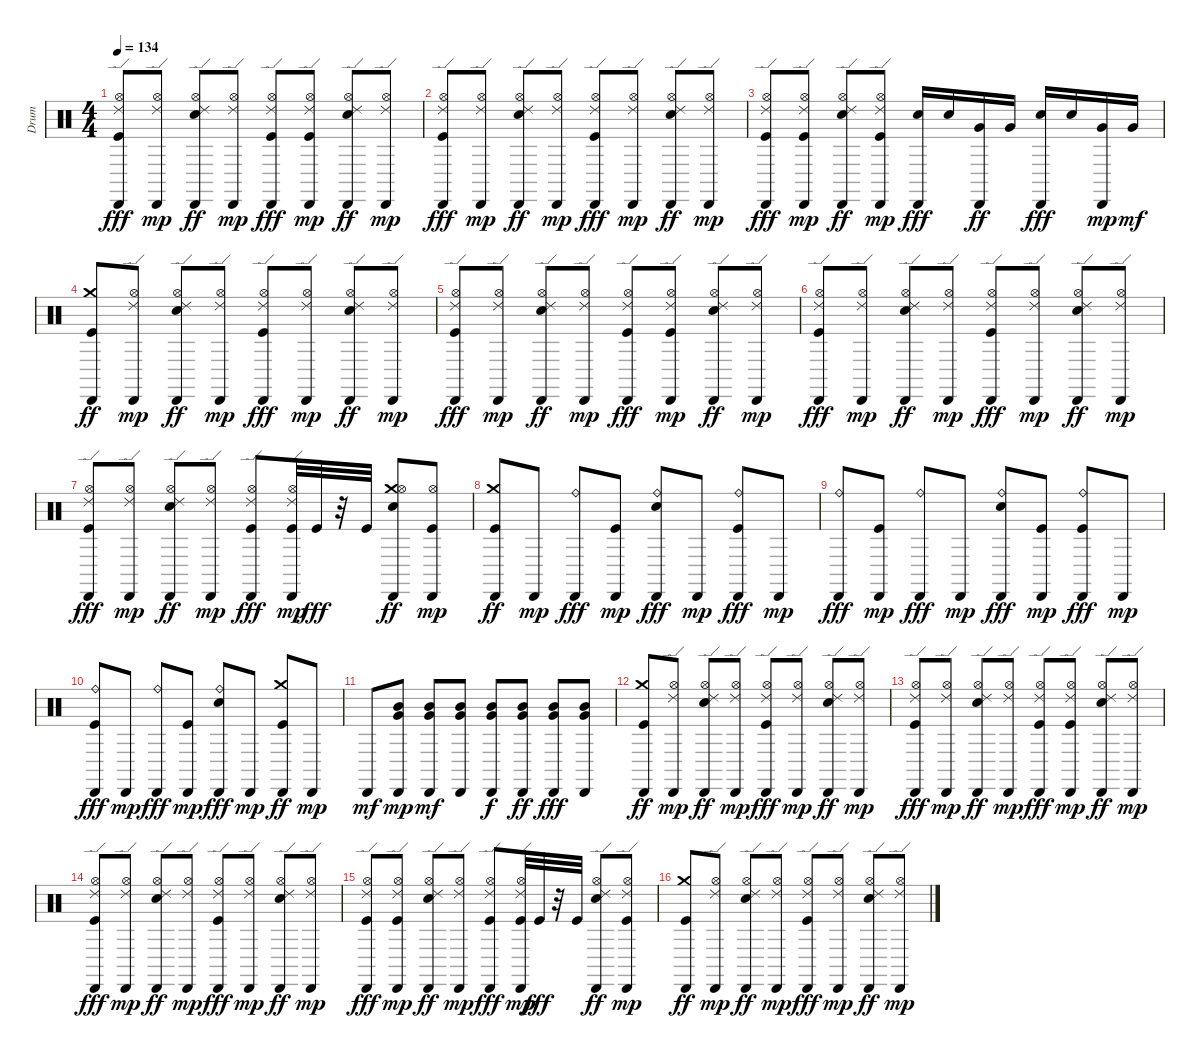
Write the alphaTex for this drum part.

\track ("Drum" "Drum") {instrument percussion}
\staff {score}
\articulation defaults
\ts (4 4)
\tempo 134
\clef neutral
\ks c
("Cabasa (hit)" "Ride (edge) 2" "Kick (hit)" "Hi-Hat (open)").8{dy fff} ("Cabasa (hit)" "Ride (edge) 2" "Hi-Hat (open)").8{dy mp} ("Cabasa (hit)" "Electric Snare (hit)" "Ride (edge) 2" "Hi-Hat (open)").8{dy ff} ("Cabasa (hit)" "Ride (edge) 2" "Hi-Hat (open)").8{dy mp} ("Cabasa (hit)" "Ride (edge) 2" "Kick (hit)" "Hi-Hat (open)").8{dy fff} ("Cabasa (hit)" "Kick (hit)" "Ride (edge) 2" "Hi-Hat (open)").8{dy mp} ("Cabasa (hit)" "Electric Snare (hit)" "Ride (edge) 2" "Hi-Hat (open)").8{dy ff} ("Cabasa (hit)" "Ride (edge) 2" "Hi-Hat (open)").8{dy mp} |
("Ride (edge) 2" "Kick (hit)" "Hi-Hat (open)" "Cabasa (hit)").8{dy fff} ("Cabasa (hit)" "Ride (edge) 2" "Hi-Hat (open)").8{dy mp} ("Electric Snare (hit)" "Cabasa (hit)" "Ride (edge) 2" "Hi-Hat (open)").8{dy ff} ("Cabasa (hit)" "Ride (edge) 2" "Hi-Hat (open)").8{dy mp} ("Cabasa (hit)" "Ride (edge) 2" "Kick (hit)" "Hi-Hat (open)").8{dy fff} ("Cabasa (hit)" "Ride (edge) 2" "Hi-Hat (open)").8{dy mp} ("Cabasa (hit)" "Electric Snare (hit)" "Ride (edge) 2" "Hi-Hat (open)").8{dy ff} ("Cabasa (hit)" "Ride (edge) 2" "Hi-Hat (open)").8{dy mp} |
("Ride (edge) 2" "Kick (hit)" "Hi-Hat (open)" "Cabasa (hit)").8{dy fff} ("Cabasa (hit)" "Kick (hit)" "Ride (edge) 2" "Hi-Hat (open)").8{dy mp} ("Electric Snare (hit)" "Cabasa (hit)" "Ride (edge) 2" "Hi-Hat (open)").8{dy ff} ("Cabasa (hit)" "Kick (hit)" "Ride (edge) 2" "Hi-Hat (open)").8{dy mp} ("Cabasa (hit)" "Electric Snare (hit)").16{dy fff} "Electric Snare (hit)".16 ("Cabasa (hit)" "Very Low Tom (hit)").16{dy ff} "Very Low Tom (hit)".16 ("Cabasa (hit)" "Electric Snare (hit)").16{dy fff} "Electric Snare (hit)".16 ("Cabasa (hit)" "Very Low Tom (hit)").16{dy mp} "Very Low Tom (hit)".16{dy mf} |
("Cabasa (hit)" "Kick (hit)" "Crash medium (hit)").8{dy ff} ("Cabasa (hit)" "Ride (edge) 2" "Hi-Hat (open)").8{dy mp} ("Electric Snare (hit)" "Cabasa (hit)" "Ride (edge) 2" "Hi-Hat (open)").8{dy ff} ("Cabasa (hit)" "Ride (edge) 2" "Hi-Hat (open)").8{dy mp} ("Cabasa (hit)" "Ride (edge) 2" "Kick (hit)" "Hi-Hat (open)").8{dy fff} ("Cabasa (hit)" "Ride (edge) 2" "Hi-Hat (open)").8{dy mp} ("Electric Snare (hit)" "Cabasa (hit)" "Ride (edge) 2" "Hi-Hat (open)").8{dy ff} ("Cabasa (hit)" "Ride (edge) 2" "Hi-Hat (open)").8{dy mp} |
("Cabasa (hit)" "Ride (edge) 2" "Kick (hit)" "Hi-Hat (open)").8{dy fff} ("Cabasa (hit)" "Ride (edge) 2" "Hi-Hat (open)").8{dy mp} ("Cabasa (hit)" "Electric Snare (hit)" "Ride (edge) 2" "Hi-Hat (open)").8{dy ff} ("Cabasa (hit)" "Ride (edge) 2" "Hi-Hat (open)").8{dy mp} ("Cabasa (hit)" "Ride (edge) 2" "Kick (hit)" "Hi-Hat (open)").8{dy fff} ("Cabasa (hit)" "Kick (hit)" "Ride (edge) 2" "Hi-Hat (open)").8{dy mp} ("Cabasa (hit)" "Electric Snare (hit)" "Ride (edge) 2" "Hi-Hat (open)").8{dy ff} ("Cabasa (hit)" "Ride (edge) 2" "Hi-Hat (open)").8{dy mp} |
("Cabasa (hit)" "Ride (edge) 2" "Kick (hit)" "Hi-Hat (open)").8{dy fff} ("Cabasa (hit)" "Ride (edge) 2" "Hi-Hat (open)").8{dy mp} ("Cabasa (hit)" "Electric Snare (hit)" "Ride (edge) 2" "Hi-Hat (open)").8{dy ff} ("Cabasa (hit)" "Ride (edge) 2" "Hi-Hat (open)").8{dy mp} ("Cabasa (hit)" "Ride (edge) 2" "Kick (hit)" "Hi-Hat (open)").8{dy fff} ("Cabasa (hit)" "Ride (edge) 2" "Hi-Hat (open)").8{dy mp} ("Cabasa (hit)" "Electric Snare (hit)" "Ride (edge) 2" "Hi-Hat (open)").8{dy ff} ("Cabasa (hit)" "Ride (edge) 2" "Hi-Hat (open)").8{dy mp} |
("Ride (edge) 2" "Kick (hit)" "Hi-Hat (open)" "Cabasa (hit)").8{dy fff} ("Cabasa (hit)" "Ride (edge) 2" "Hi-Hat (open)").8{dy mp} ("Electric Snare (hit)" "Cabasa (hit)" "Ride (edge) 2" "Hi-Hat (open)").8{dy ff} ("Cabasa (hit)" "Ride (edge) 2" "Hi-Hat (open)").8{dy mp} ("Cabasa (hit)" "Ride (edge) 2" "Kick (hit)" "Hi-Hat (open)").8{dy fff} ("Cabasa (hit)" "Kick (hit)" "Ride (edge) 2" "Hi-Hat (open)").32{dy mp} "Kick (hit)".32{dy fff} r.32 "Kick (hit)".32 ("Cabasa (hit)" "Electric Snare (hit)" "Crash medium (hit)" "Hi-Hat (open)").8{dy ff} ("Cabasa (hit)" "Kick (hit)" "Hi-Hat (open)").8{dy mp} |
("Kick (hit)" "Crash medium (hit)" "Cabasa (hit)").8{dy ff} "Cabasa (hit)".8{dy mp} ("Ride (bell)" "Cabasa (hit)").8{dy fff} ("Kick (hit)" "Cabasa (hit)").8{dy mp} ("Electric Snare (hit)" "Ride (bell)" "Cabasa (hit)").8{dy fff} "Cabasa (hit)".8{dy mp} ("Kick (hit)" "Ride (bell)" "Cabasa (hit)").8{dy fff} "Cabasa (hit)".8{dy mp} |
("Ride (bell)" "Cabasa (hit)").8{dy fff} ("Kick (hit)" "Cabasa (hit)").8{dy mp} ("Ride (bell)" "Cabasa (hit)").8{dy fff} "Cabasa (hit)".8{dy mp} ("Electric Snare (hit)" "Ride (bell)" "Cabasa (hit)").8{dy fff} ("Kick (hit)" "Cabasa (hit)").8{dy mp} ("Cabasa (hit)" "Kick (hit)" "Ride (bell)").8{dy fff} "Cabasa (hit)".8{dy mp} |
("Kick (hit)" "Ride (bell)" "Cabasa (hit)").8{dy fff} "Cabasa (hit)".8{dy mp} ("Ride (bell)" "Cabasa (hit)").8{dy fff} ("Kick (hit)" "Cabasa (hit)").8{dy mp} ("Electric Snare (hit)" "Ride (bell)" "Cabasa (hit)").8{dy fff} "Cabasa (hit)".8{dy mp} ("Kick (hit)" "Crash medium (hit)" "Cabasa (hit)").8{dy ff} "Cabasa (hit)".8{dy mp} |
"Cabasa (hit)".8{dy mf} ("Cabasa (hit)" "Mid Tom (hit)" "Very Low Tom (hit)").8{dy mp} ("Cabasa (hit)" "Mid Tom (hit)" "Very Low Tom (hit)").8{dy mf} ("Cabasa (hit)" "Mid Tom (hit)" "Very Low Tom (hit)").8 ("Cabasa (hit)" "Mid Tom (hit)" "Very Low Tom (hit)").8{dy f} ("Cabasa (hit)" "Mid Tom (hit)" "Very Low Tom (hit)").8{dy ff} ("Cabasa (hit)" "Mid Tom (hit)" "Very Low Tom (hit)").8{dy fff} ("Cabasa (hit)" "Mid Tom (hit)" "Very Low Tom (hit)").8 |
("Cabasa (hit)" "Kick (hit)" "Crash medium (hit)").8{dy ff} ("Cabasa (hit)" "Ride (edge) 2" "Hi-Hat (open)").8{dy mp} ("Electric Snare (hit)" "Cabasa (hit)" "Ride (edge) 2" "Hi-Hat (open)").8{dy ff} ("Cabasa (hit)" "Ride (edge) 2" "Hi-Hat (open)").8{dy mp} ("Cabasa (hit)" "Ride (edge) 2" "Kick (hit)" "Hi-Hat (open)").8{dy fff} ("Cabasa (hit)" "Ride (edge) 2" "Hi-Hat (open)").8{dy mp} ("Electric Snare (hit)" "Cabasa (hit)" "Ride (edge) 2" "Hi-Hat (open)").8{dy ff} ("Cabasa (hit)" "Ride (edge) 2" "Hi-Hat (open)").8{dy mp} |
("Ride (edge) 2" "Kick (hit)" "Hi-Hat (open)" "Cabasa (hit)").8{dy fff} ("Cabasa (hit)" "Ride (edge) 2" "Hi-Hat (open)").8{dy mp} ("Electric Snare (hit)" "Cabasa (hit)" "Ride (edge) 2" "Hi-Hat (open)").8{dy ff} ("Cabasa (hit)" "Ride (edge) 2" "Hi-Hat (open)").8{dy mp} ("Cabasa (hit)" "Ride (edge) 2" "Kick (hit)" "Hi-Hat (open)").8{dy fff} ("Cabasa (hit)" "Kick (hit)" "Ride (edge) 2" "Hi-Hat (open)").8{dy mp} ("Cabasa (hit)" "Electric Snare (hit)" "Ride (edge) 2" "Hi-Hat (open)").8{dy ff} ("Cabasa (hit)" "Ride (edge) 2" "Hi-Hat (open)").8{dy mp} |
("Ride (edge) 2" "Kick (hit)" "Hi-Hat (open)" "Cabasa (hit)").8{dy fff} ("Cabasa (hit)" "Ride (edge) 2" "Hi-Hat (open)").8{dy mp} ("Electric Snare (hit)" "Cabasa (hit)" "Ride (edge) 2" "Hi-Hat (open)").8{dy ff} ("Cabasa (hit)" "Ride (edge) 2" "Hi-Hat (open)").8{dy mp} ("Cabasa (hit)" "Ride (edge) 2" "Kick (hit)" "Hi-Hat (open)").8{dy fff} ("Cabasa (hit)" "Ride (edge) 2" "Hi-Hat (open)").8{dy mp} ("Cabasa (hit)" "Electric Snare (hit)" "Ride (edge) 2" "Hi-Hat (open)").8{dy ff} ("Cabasa (hit)" "Ride (edge) 2" "Hi-Hat (open)").8{dy mp} |
("Cabasa (hit)" "Ride (edge) 2" "Kick (hit)" "Hi-Hat (open)").8{dy fff} ("Cabasa (hit)" "Kick (hit)" "Ride (edge) 2" "Hi-Hat (open)").8{dy mp} ("Cabasa (hit)" "Electric Snare (hit)" "Ride (edge) 2" "Hi-Hat (open)").8{dy ff} ("Cabasa (hit)" "Ride (edge) 2" "Hi-Hat (open)").8{dy mp} ("Cabasa (hit)" "Ride (edge) 2" "Kick (hit)" "Hi-Hat (open)").8{dy fff} ("Cabasa (hit)" "Kick (hit)" "Ride (edge) 2" "Hi-Hat (open)").32{dy mp} "Kick (hit)".32{dy fff} r.32 "Kick (hit)".32 ("Cabasa (hit)" "Electric Snare (hit)" "Ride (edge) 2" "Hi-Hat (open)").8{dy ff} ("Cabasa (hit)" "Ride (edge) 2" "Kick (hit)" "Hi-Hat (open)").8{dy mp} |
("Cabasa (hit)" "Kick (hit)" "Crash medium (hit)").8{dy ff} ("Cabasa (hit)" "Ride (edge) 2" "Hi-Hat (open)").8{dy mp} ("Cabasa (hit)" "Electric Snare (hit)" "Ride (edge) 2" "Hi-Hat (open)").8{dy ff} ("Cabasa (hit)" "Ride (edge) 2" "Hi-Hat (open)").8{dy mp} ("Cabasa (hit)" "Ride (edge) 2" "Kick (hit)" "Hi-Hat (open)").8{dy fff} ("Cabasa (hit)" "Ride (edge) 2" "Hi-Hat (open)").8{dy mp} ("Cabasa (hit)" "Electric Snare (hit)" "Ride (edge) 2" "Hi-Hat (open)").8{dy ff} ("Cabasa (hit)" "Ride (edge) 2" "Hi-Hat (open)").8{dy mp}
